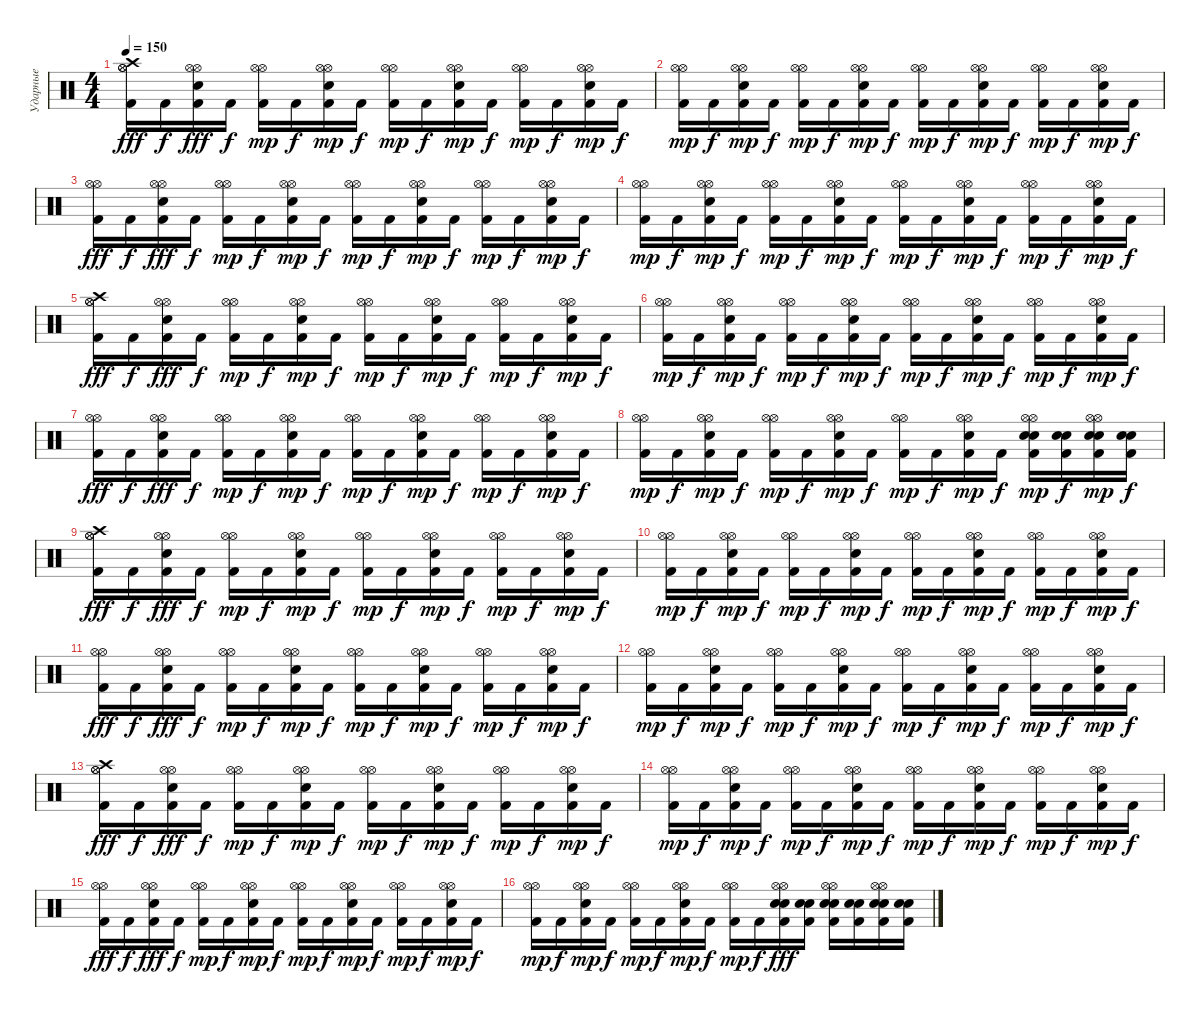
\track ("Ударные" "Ударные") {instrument percussion}
\staff {score}
\articulation defaults
\ts (4 4)
\tempo 150
\clef neutral
\ks c
("Crash high (hit)" "Hi-Hat (open)" "Hi-Hat (open)" "Kick (hit) 2").16{dy fff} "Kick (hit) 2".16{dy f} ("Hi-Hat (open)" "Hi-Hat (open)" "Snare (hit) 2" "Kick (hit) 2").16{dy fff} "Kick (hit) 2".16{dy f} ("Hi-Hat (open)" "Hi-Hat (open)" "Kick (hit) 2").16{dy mp} "Kick (hit) 2".16{dy f} ("Hi-Hat (open)" "Hi-Hat (open)" "Snare (hit) 2" "Kick (hit) 2").16{dy mp} "Kick (hit) 2".16{dy f} ("Hi-Hat (open)" "Hi-Hat (open)" "Kick (hit) 2").16{dy mp} "Kick (hit) 2".16{dy f} ("Hi-Hat (open)" "Hi-Hat (open)" "Snare (hit) 2" "Kick (hit) 2").16{dy mp} "Kick (hit) 2".16{dy f} ("Hi-Hat (open)" "Hi-Hat (open)" "Kick (hit) 2").16{dy mp} "Kick (hit) 2".16{dy f} ("Hi-Hat (open)" "Hi-Hat (open)" "Snare (hit) 2" "Kick (hit) 2").16{dy mp} "Kick (hit) 2".16{dy f} |
("Hi-Hat (open)" "Hi-Hat (open)" "Kick (hit) 2").16{dy mp} "Kick (hit) 2".16{dy f} ("Hi-Hat (open)" "Hi-Hat (open)" "Snare (hit) 2" "Kick (hit) 2").16{dy mp} "Kick (hit) 2".16{dy f} ("Hi-Hat (open)" "Hi-Hat (open)" "Kick (hit) 2").16{dy mp} "Kick (hit) 2".16{dy f} ("Hi-Hat (open)" "Hi-Hat (open)" "Snare (hit) 2" "Kick (hit) 2").16{dy mp} "Kick (hit) 2".16{dy f} ("Hi-Hat (open)" "Hi-Hat (open)" "Kick (hit) 2").16{dy mp} "Kick (hit) 2".16{dy f} ("Hi-Hat (open)" "Hi-Hat (open)" "Snare (hit) 2" "Kick (hit) 2").16{dy mp} "Kick (hit) 2".16{dy f} ("Hi-Hat (open)" "Hi-Hat (open)" "Kick (hit) 2").16{dy mp} "Kick (hit) 2".16{dy f} ("Hi-Hat (open)" "Hi-Hat (open)" "Snare (hit) 2" "Kick (hit) 2").16{dy mp} "Kick (hit) 2".16{dy f} |
("Hi-Hat (open)" "Hi-Hat (open)" "Kick (hit) 2").16{dy fff} "Kick (hit) 2".16{dy f} ("Hi-Hat (open)" "Hi-Hat (open)" "Snare (hit) 2" "Kick (hit) 2").16{dy fff} "Kick (hit) 2".16{dy f} ("Hi-Hat (open)" "Hi-Hat (open)" "Kick (hit) 2").16{dy mp} "Kick (hit) 2".16{dy f} ("Hi-Hat (open)" "Hi-Hat (open)" "Snare (hit) 2" "Kick (hit) 2").16{dy mp} "Kick (hit) 2".16{dy f} ("Hi-Hat (open)" "Hi-Hat (open)" "Kick (hit) 2").16{dy mp} "Kick (hit) 2".16{dy f} ("Hi-Hat (open)" "Hi-Hat (open)" "Snare (hit) 2" "Kick (hit) 2").16{dy mp} "Kick (hit) 2".16{dy f} ("Hi-Hat (open)" "Hi-Hat (open)" "Kick (hit) 2").16{dy mp} "Kick (hit) 2".16{dy f} ("Hi-Hat (open)" "Hi-Hat (open)" "Snare (hit) 2" "Kick (hit) 2").16{dy mp} "Kick (hit) 2".16{dy f} |
("Hi-Hat (open)" "Hi-Hat (open)" "Kick (hit) 2").16{dy mp} "Kick (hit) 2".16{dy f} ("Hi-Hat (open)" "Hi-Hat (open)" "Snare (hit) 2" "Kick (hit) 2").16{dy mp} "Kick (hit) 2".16{dy f} ("Hi-Hat (open)" "Hi-Hat (open)" "Kick (hit) 2").16{dy mp} "Kick (hit) 2".16{dy f} ("Hi-Hat (open)" "Hi-Hat (open)" "Snare (hit) 2" "Kick (hit) 2").16{dy mp} "Kick (hit) 2".16{dy f} ("Hi-Hat (open)" "Hi-Hat (open)" "Kick (hit) 2").16{dy mp} "Kick (hit) 2".16{dy f} ("Hi-Hat (open)" "Hi-Hat (open)" "Snare (hit) 2" "Kick (hit) 2").16{dy mp} "Kick (hit) 2".16{dy f} ("Hi-Hat (open)" "Hi-Hat (open)" "Kick (hit) 2").16{dy mp} "Kick (hit) 2".16{dy f} ("Hi-Hat (open)" "Hi-Hat (open)" "Snare (hit) 2" "Kick (hit) 2").16{dy mp} "Kick (hit) 2".16{dy f} |
("Crash high (hit)" "Hi-Hat (open)" "Hi-Hat (open)" "Kick (hit) 2").16{dy fff} "Kick (hit) 2".16{dy f} ("Hi-Hat (open)" "Hi-Hat (open)" "Snare (hit) 2" "Kick (hit) 2").16{dy fff} "Kick (hit) 2".16{dy f} ("Hi-Hat (open)" "Hi-Hat (open)" "Kick (hit) 2").16{dy mp} "Kick (hit) 2".16{dy f} ("Hi-Hat (open)" "Hi-Hat (open)" "Snare (hit) 2" "Kick (hit) 2").16{dy mp} "Kick (hit) 2".16{dy f} ("Hi-Hat (open)" "Hi-Hat (open)" "Kick (hit) 2").16{dy mp} "Kick (hit) 2".16{dy f} ("Hi-Hat (open)" "Hi-Hat (open)" "Snare (hit) 2" "Kick (hit) 2").16{dy mp} "Kick (hit) 2".16{dy f} ("Hi-Hat (open)" "Hi-Hat (open)" "Kick (hit) 2").16{dy mp} "Kick (hit) 2".16{dy f} ("Hi-Hat (open)" "Hi-Hat (open)" "Snare (hit) 2" "Kick (hit) 2").16{dy mp} "Kick (hit) 2".16{dy f} |
("Hi-Hat (open)" "Hi-Hat (open)" "Kick (hit) 2").16{dy mp} "Kick (hit) 2".16{dy f} ("Hi-Hat (open)" "Hi-Hat (open)" "Snare (hit) 2" "Kick (hit) 2").16{dy mp} "Kick (hit) 2".16{dy f} ("Hi-Hat (open)" "Hi-Hat (open)" "Kick (hit) 2").16{dy mp} "Kick (hit) 2".16{dy f} ("Hi-Hat (open)" "Hi-Hat (open)" "Snare (hit) 2" "Kick (hit) 2").16{dy mp} "Kick (hit) 2".16{dy f} ("Hi-Hat (open)" "Hi-Hat (open)" "Kick (hit) 2").16{dy mp} "Kick (hit) 2".16{dy f} ("Hi-Hat (open)" "Hi-Hat (open)" "Snare (hit) 2" "Kick (hit) 2").16{dy mp} "Kick (hit) 2".16{dy f} ("Hi-Hat (open)" "Hi-Hat (open)" "Kick (hit) 2").16{dy mp} "Kick (hit) 2".16{dy f} ("Hi-Hat (open)" "Hi-Hat (open)" "Snare (hit) 2" "Kick (hit) 2").16{dy mp} "Kick (hit) 2".16{dy f} |
("Hi-Hat (open)" "Hi-Hat (open)" "Kick (hit) 2").16{dy fff} "Kick (hit) 2".16{dy f} ("Hi-Hat (open)" "Hi-Hat (open)" "Snare (hit) 2" "Kick (hit) 2").16{dy fff} "Kick (hit) 2".16{dy f} ("Hi-Hat (open)" "Hi-Hat (open)" "Kick (hit) 2").16{dy mp} "Kick (hit) 2".16{dy f} ("Hi-Hat (open)" "Hi-Hat (open)" "Snare (hit) 2" "Kick (hit) 2").16{dy mp} "Kick (hit) 2".16{dy f} ("Hi-Hat (open)" "Hi-Hat (open)" "Kick (hit) 2").16{dy mp} "Kick (hit) 2".16{dy f} ("Hi-Hat (open)" "Hi-Hat (open)" "Snare (hit) 2" "Kick (hit) 2").16{dy mp} "Kick (hit) 2".16{dy f} ("Hi-Hat (open)" "Hi-Hat (open)" "Kick (hit) 2").16{dy mp} "Kick (hit) 2".16{dy f} ("Hi-Hat (open)" "Hi-Hat (open)" "Snare (hit) 2" "Kick (hit) 2").16{dy mp} "Kick (hit) 2".16{dy f} |
("Hi-Hat (open)" "Hi-Hat (open)" "Kick (hit) 2").16{dy mp} "Kick (hit) 2".16{dy f} ("Hi-Hat (open)" "Hi-Hat (open)" "Snare (hit) 2" "Kick (hit) 2").16{dy mp} "Kick (hit) 2".16{dy f} ("Hi-Hat (open)" "Hi-Hat (open)" "Kick (hit) 2").16{dy mp} "Kick (hit) 2".16{dy f} ("Hi-Hat (open)" "Hi-Hat (open)" "Snare (hit) 2" "Kick (hit) 2").16{dy mp} "Kick (hit) 2".16{dy f} ("Hi-Hat (open)" "Hi-Hat (open)" "Kick (hit) 2").16{dy mp} "Kick (hit) 2".16{dy f} ("Hi-Hat (open)" "Hi-Hat (open)" "Snare (hit) 2" "Kick (hit) 2").16{dy mp} "Kick (hit) 2".16{dy f} ("Hi-Hat (open)" "Hi-Hat (open)" "Snare (hit) 2" "Snare (hit) 2" "Kick (hit) 2").16{dy mp} ("Snare (hit) 2" "Snare (hit) 2" "Kick (hit) 2").16{dy f} ("Hi-Hat (open)" "Hi-Hat (open)" "Snare (hit) 2" "Snare (hit) 2" "Kick (hit) 2").16{dy mp} ("Snare (hit) 2" "Snare (hit) 2" "Kick (hit) 2").16{dy f} |
("Crash high (hit)" "Hi-Hat (open)" "Hi-Hat (open)" "Kick (hit) 2").16{dy fff} "Kick (hit) 2".16{dy f} ("Hi-Hat (open)" "Hi-Hat (open)" "Snare (hit) 2" "Kick (hit) 2").16{dy fff} "Kick (hit) 2".16{dy f} ("Hi-Hat (open)" "Hi-Hat (open)" "Kick (hit) 2").16{dy mp} "Kick (hit) 2".16{dy f} ("Hi-Hat (open)" "Hi-Hat (open)" "Snare (hit) 2" "Kick (hit) 2").16{dy mp} "Kick (hit) 2".16{dy f} ("Hi-Hat (open)" "Hi-Hat (open)" "Kick (hit) 2").16{dy mp} "Kick (hit) 2".16{dy f} ("Hi-Hat (open)" "Hi-Hat (open)" "Snare (hit) 2" "Kick (hit) 2").16{dy mp} "Kick (hit) 2".16{dy f} ("Hi-Hat (open)" "Hi-Hat (open)" "Kick (hit) 2").16{dy mp} "Kick (hit) 2".16{dy f} ("Hi-Hat (open)" "Hi-Hat (open)" "Snare (hit) 2" "Kick (hit) 2").16{dy mp} "Kick (hit) 2".16{dy f} |
("Hi-Hat (open)" "Hi-Hat (open)" "Kick (hit) 2").16{dy mp} "Kick (hit) 2".16{dy f} ("Hi-Hat (open)" "Hi-Hat (open)" "Snare (hit) 2" "Kick (hit) 2").16{dy mp} "Kick (hit) 2".16{dy f} ("Hi-Hat (open)" "Hi-Hat (open)" "Kick (hit) 2").16{dy mp} "Kick (hit) 2".16{dy f} ("Hi-Hat (open)" "Hi-Hat (open)" "Snare (hit) 2" "Kick (hit) 2").16{dy mp} "Kick (hit) 2".16{dy f} ("Hi-Hat (open)" "Hi-Hat (open)" "Kick (hit) 2").16{dy mp} "Kick (hit) 2".16{dy f} ("Hi-Hat (open)" "Hi-Hat (open)" "Snare (hit) 2" "Kick (hit) 2").16{dy mp} "Kick (hit) 2".16{dy f} ("Hi-Hat (open)" "Hi-Hat (open)" "Kick (hit) 2").16{dy mp} "Kick (hit) 2".16{dy f} ("Hi-Hat (open)" "Hi-Hat (open)" "Snare (hit) 2" "Kick (hit) 2").16{dy mp} "Kick (hit) 2".16{dy f} |
("Hi-Hat (open)" "Hi-Hat (open)" "Kick (hit) 2").16{dy fff} "Kick (hit) 2".16{dy f} ("Hi-Hat (open)" "Hi-Hat (open)" "Snare (hit) 2" "Kick (hit) 2").16{dy fff} "Kick (hit) 2".16{dy f} ("Hi-Hat (open)" "Hi-Hat (open)" "Kick (hit) 2").16{dy mp} "Kick (hit) 2".16{dy f} ("Hi-Hat (open)" "Hi-Hat (open)" "Snare (hit) 2" "Kick (hit) 2").16{dy mp} "Kick (hit) 2".16{dy f} ("Hi-Hat (open)" "Hi-Hat (open)" "Kick (hit) 2").16{dy mp} "Kick (hit) 2".16{dy f} ("Hi-Hat (open)" "Hi-Hat (open)" "Snare (hit) 2" "Kick (hit) 2").16{dy mp} "Kick (hit) 2".16{dy f} ("Hi-Hat (open)" "Hi-Hat (open)" "Kick (hit) 2").16{dy mp} "Kick (hit) 2".16{dy f} ("Hi-Hat (open)" "Hi-Hat (open)" "Snare (hit) 2" "Kick (hit) 2").16{dy mp} "Kick (hit) 2".16{dy f} |
("Hi-Hat (open)" "Hi-Hat (open)" "Kick (hit) 2").16{dy mp} "Kick (hit) 2".16{dy f} ("Hi-Hat (open)" "Hi-Hat (open)" "Snare (hit) 2" "Kick (hit) 2").16{dy mp} "Kick (hit) 2".16{dy f} ("Hi-Hat (open)" "Hi-Hat (open)" "Kick (hit) 2").16{dy mp} "Kick (hit) 2".16{dy f} ("Hi-Hat (open)" "Hi-Hat (open)" "Snare (hit) 2" "Kick (hit) 2").16{dy mp} "Kick (hit) 2".16{dy f} ("Hi-Hat (open)" "Hi-Hat (open)" "Kick (hit) 2").16{dy mp} "Kick (hit) 2".16{dy f} ("Hi-Hat (open)" "Hi-Hat (open)" "Snare (hit) 2" "Kick (hit) 2").16{dy mp} "Kick (hit) 2".16{dy f} ("Hi-Hat (open)" "Hi-Hat (open)" "Kick (hit) 2").16{dy mp} "Kick (hit) 2".16{dy f} ("Hi-Hat (open)" "Hi-Hat (open)" "Snare (hit) 2" "Kick (hit) 2").16{dy mp} "Kick (hit) 2".16{dy f} |
("Crash high (hit)" "Hi-Hat (open)" "Hi-Hat (open)" "Kick (hit) 2").16{dy fff} "Kick (hit) 2".16{dy f} ("Hi-Hat (open)" "Hi-Hat (open)" "Snare (hit) 2" "Kick (hit) 2").16{dy fff} "Kick (hit) 2".16{dy f} ("Hi-Hat (open)" "Hi-Hat (open)" "Kick (hit) 2").16{dy mp} "Kick (hit) 2".16{dy f} ("Hi-Hat (open)" "Hi-Hat (open)" "Snare (hit) 2" "Kick (hit) 2").16{dy mp} "Kick (hit) 2".16{dy f} ("Hi-Hat (open)" "Hi-Hat (open)" "Kick (hit) 2").16{dy mp} "Kick (hit) 2".16{dy f} ("Hi-Hat (open)" "Hi-Hat (open)" "Snare (hit) 2" "Kick (hit) 2").16{dy mp} "Kick (hit) 2".16{dy f} ("Hi-Hat (open)" "Hi-Hat (open)" "Kick (hit) 2").16{dy mp} "Kick (hit) 2".16{dy f} ("Hi-Hat (open)" "Hi-Hat (open)" "Snare (hit) 2" "Kick (hit) 2").16{dy mp} "Kick (hit) 2".16{dy f} |
("Hi-Hat (open)" "Hi-Hat (open)" "Kick (hit) 2").16{dy mp} "Kick (hit) 2".16{dy f} ("Hi-Hat (open)" "Hi-Hat (open)" "Snare (hit) 2" "Kick (hit) 2").16{dy mp} "Kick (hit) 2".16{dy f} ("Hi-Hat (open)" "Hi-Hat (open)" "Kick (hit) 2").16{dy mp} "Kick (hit) 2".16{dy f} ("Hi-Hat (open)" "Hi-Hat (open)" "Snare (hit) 2" "Kick (hit) 2").16{dy mp} "Kick (hit) 2".16{dy f} ("Hi-Hat (open)" "Hi-Hat (open)" "Kick (hit) 2").16{dy mp} "Kick (hit) 2".16{dy f} ("Hi-Hat (open)" "Hi-Hat (open)" "Snare (hit) 2" "Kick (hit) 2").16{dy mp} "Kick (hit) 2".16{dy f} ("Hi-Hat (open)" "Hi-Hat (open)" "Kick (hit) 2").16{dy mp} "Kick (hit) 2".16{dy f} ("Hi-Hat (open)" "Hi-Hat (open)" "Snare (hit) 2" "Kick (hit) 2").16{dy mp} "Kick (hit) 2".16{dy f} |
("Hi-Hat (open)" "Hi-Hat (open)" "Kick (hit) 2").16{dy fff} "Kick (hit) 2".16{dy f} ("Hi-Hat (open)" "Hi-Hat (open)" "Snare (hit) 2" "Kick (hit) 2").16{dy fff} "Kick (hit) 2".16{dy f} ("Hi-Hat (open)" "Hi-Hat (open)" "Kick (hit) 2").16{dy mp} "Kick (hit) 2".16{dy f} ("Hi-Hat (open)" "Hi-Hat (open)" "Snare (hit) 2" "Kick (hit) 2").16{dy mp} "Kick (hit) 2".16{dy f} ("Hi-Hat (open)" "Hi-Hat (open)" "Kick (hit) 2").16{dy mp} "Kick (hit) 2".16{dy f} ("Hi-Hat (open)" "Hi-Hat (open)" "Snare (hit) 2" "Kick (hit) 2").16{dy mp} "Kick (hit) 2".16{dy f} ("Hi-Hat (open)" "Hi-Hat (open)" "Kick (hit) 2").16{dy mp} "Kick (hit) 2".16{dy f} ("Hi-Hat (open)" "Hi-Hat (open)" "Snare (hit) 2" "Kick (hit) 2").16{dy mp} "Kick (hit) 2".16{dy f} |
("Hi-Hat (open)" "Hi-Hat (open)" "Kick (hit) 2").16{dy mp} "Kick (hit) 2".16{dy f} ("Hi-Hat (open)" "Hi-Hat (open)" "Snare (hit) 2" "Kick (hit) 2").16{dy mp} "Kick (hit) 2".16{dy f} ("Hi-Hat (open)" "Hi-Hat (open)" "Kick (hit) 2").16{dy mp} "Kick (hit) 2".16{dy f} ("Hi-Hat (open)" "Hi-Hat (open)" "Snare (hit) 2" "Kick (hit) 2").16{dy mp} "Kick (hit) 2".16{dy f} ("Hi-Hat (open)" "Hi-Hat (open)" "Kick (hit) 2").16{dy mp} "Kick (hit) 2".16{dy f} ("Hi-Hat (open)" "Hi-Hat (open)" "Snare (hit) 2" "Snare (hit) 2" "Kick (hit) 2").16{dy fff} ("Snare (hit) 2" "Snare (hit) 2" "Kick (hit) 2").16 ("Hi-Hat (open)" "Hi-Hat (open)" "Snare (hit) 2" "Snare (hit) 2" "Kick (hit) 2").16 ("Snare (hit) 2" "Snare (hit) 2" "Kick (hit) 2").16 ("Hi-Hat (open)" "Hi-Hat (open)" "Snare (hit) 2" "Snare (hit) 2" "Kick (hit) 2").16 ("Snare (hit) 2" "Snare (hit) 2" "Kick (hit) 2").16
